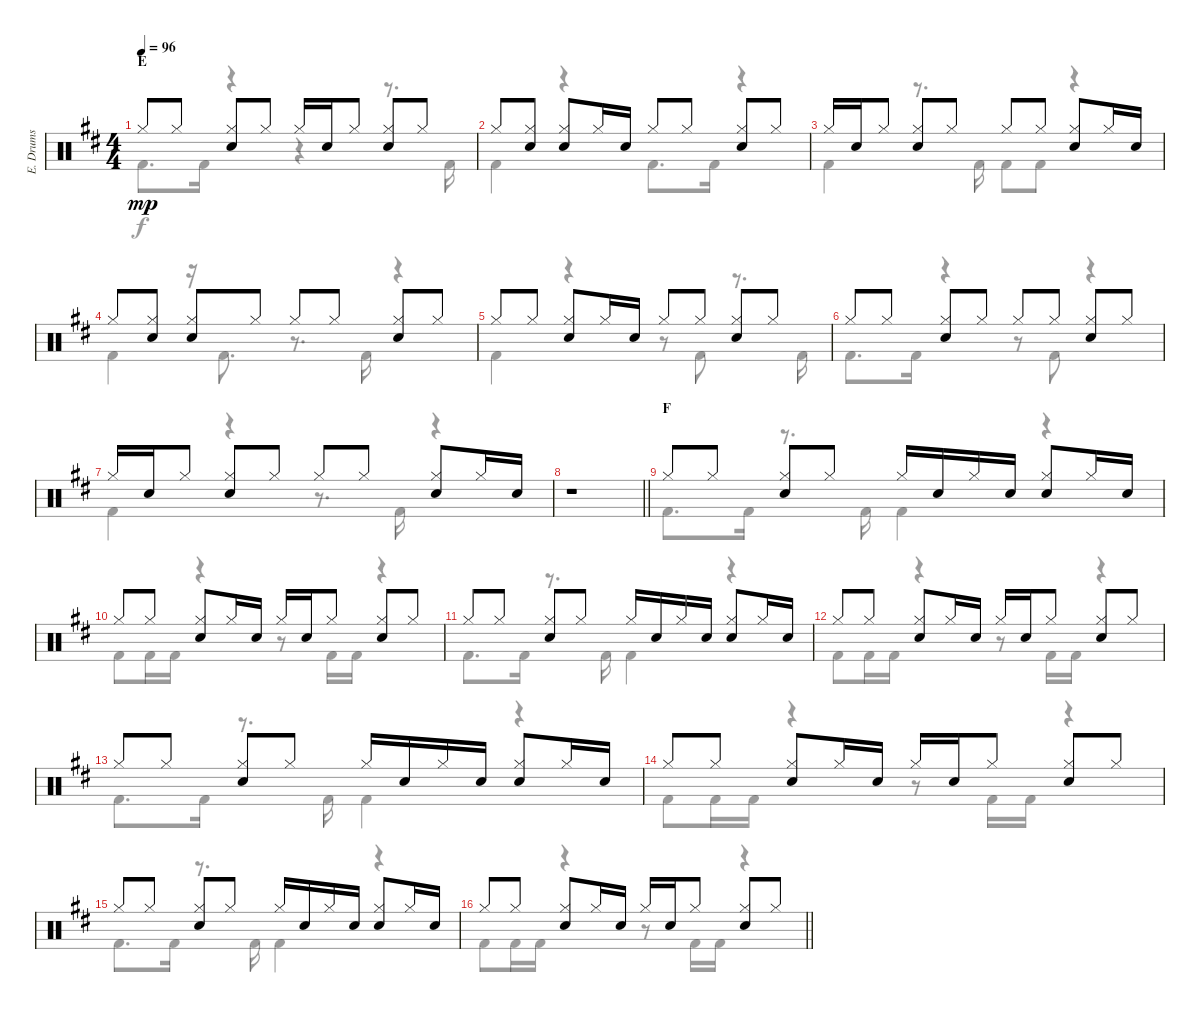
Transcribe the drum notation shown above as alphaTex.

\track ("E. Drums" "E. Drums") {instrument percussion}
\staff {score}
\articulation defaults
\voice
\ts (4 4)
\section ("" "E")
\tempo 96
\clef neutral
\ks d "Hi-Hat (closed)".8{dy mp} "Hi-Hat (closed)".8
("Hi-Hat (closed)" "Electric Snare (hit)").8 "Hi-Hat (closed)".8 "Hi-Hat (closed)".16 "Electric Snare (hit)".16 "Hi-Hat (closed)".8 ("Hi-Hat (closed)" "Electric Snare (hit)").8 "Hi-Hat (closed)".8 |
"Hi-Hat (closed)".8 ("Hi-Hat (closed)" "Electric Snare (hit)").8 ("Hi-Hat (closed)" "Electric Snare (hit)").8 "Hi-Hat (closed)".16 "Electric Snare (hit)".16 "Hi-Hat (closed)".8 "Hi-Hat (closed)".8 ("Hi-Hat (closed)" "Electric Snare (hit)").8 "Hi-Hat (closed)".8 |
"Hi-Hat (closed)".16 "Electric Snare (hit)".16 "Hi-Hat (closed)".8 ("Hi-Hat (closed)" "Electric Snare (hit)").8 "Hi-Hat (closed)".8 "Hi-Hat (closed)".8 "Hi-Hat (closed)".8 ("Hi-Hat (closed)" "Electric Snare (hit)").8 "Hi-Hat (closed)".16 "Electric Snare (hit)".16 |
"Hi-Hat (closed)".8 ("Hi-Hat (closed)" "Electric Snare (hit)").8 ("Hi-Hat (closed)" "Electric Snare (hit)").8 "Hi-Hat (closed)".8 "Hi-Hat (closed)".8 "Hi-Hat (closed)".8 ("Hi-Hat (closed)" "Electric Snare (hit)").8 "Hi-Hat (closed)".8 |
"Hi-Hat (closed)".8 "Hi-Hat (closed)".8 ("Hi-Hat (closed)" "Electric Snare (hit)").8 "Hi-Hat (closed)".16 "Electric Snare (hit)".16 "Hi-Hat (closed)".8 "Hi-Hat (closed)".8 ("Hi-Hat (closed)" "Electric Snare (hit)").8 "Hi-Hat (closed)".8 |
"Hi-Hat (closed)".8 "Hi-Hat (closed)".8 ("Hi-Hat (closed)" "Electric Snare (hit)").8 "Hi-Hat (closed)".8 "Hi-Hat (closed)".8 "Hi-Hat (closed)".8 ("Hi-Hat (closed)" "Electric Snare (hit)").8 "Hi-Hat (closed)".8 |
"Hi-Hat (closed)".16 "Electric Snare (hit)".16 "Hi-Hat (closed)".8 ("Hi-Hat (closed)" "Electric Snare (hit)").8 "Hi-Hat (closed)".8 "Hi-Hat (closed)".8 "Hi-Hat (closed)".8 ("Hi-Hat (closed)" "Electric Snare (hit)").8 "Hi-Hat (closed)".16 "Electric Snare (hit)".16 |
\barLineRight lightlight
r.1 |
\section ("" "F")
"Hi-Hat (closed)".8 "Hi-Hat (closed)".8 ("Hi-Hat (closed)" "Electric Snare (hit)").8 "Hi-Hat (closed)".8 "Hi-Hat (closed)".16 "Electric Snare (hit)".16 "Hi-Hat (closed)".16 "Electric Snare (hit)".16 ("Hi-Hat (closed)" "Electric Snare (hit)").8 "Hi-Hat (closed)".16 "Electric Snare (hit)".16 |
"Hi-Hat (closed)".8 "Hi-Hat (closed)".8 ("Hi-Hat (closed)" "Electric Snare (hit)").8 "Hi-Hat (closed)".16 "Electric Snare (hit)".16 "Hi-Hat (closed)".16 "Electric Snare (hit)".16 "Hi-Hat (closed)".8 ("Hi-Hat (closed)" "Electric Snare (hit)").8 "Hi-Hat (closed)".8 |
"Hi-Hat (closed)".8 "Hi-Hat (closed)".8 ("Hi-Hat (closed)" "Electric Snare (hit)").8 "Hi-Hat (closed)".8 "Hi-Hat (closed)".16 "Electric Snare (hit)".16 "Hi-Hat (closed)".16 "Electric Snare (hit)".16 ("Hi-Hat (closed)" "Electric Snare (hit)").8 "Hi-Hat (closed)".16 "Electric Snare (hit)".16 |
"Hi-Hat (closed)".8 "Hi-Hat (closed)".8 ("Hi-Hat (closed)" "Electric Snare (hit)").8 "Hi-Hat (closed)".16 "Electric Snare (hit)".16 "Hi-Hat (closed)".16 "Electric Snare (hit)".16 "Hi-Hat (closed)".8 ("Hi-Hat (closed)" "Electric Snare (hit)").8 "Hi-Hat (closed)".8 |
"Hi-Hat (closed)".8 "Hi-Hat (closed)".8 ("Hi-Hat (closed)" "Electric Snare (hit)").8 "Hi-Hat (closed)".8 "Hi-Hat (closed)".16 "Electric Snare (hit)".16 "Hi-Hat (closed)".16 "Electric Snare (hit)".16 ("Hi-Hat (closed)" "Electric Snare (hit)").8 "Hi-Hat (closed)".16 "Electric Snare (hit)".16 |
"Hi-Hat (closed)".8 "Hi-Hat (closed)".8 ("Hi-Hat (closed)" "Electric Snare (hit)").8 "Hi-Hat (closed)".16 "Electric Snare (hit)".16 "Hi-Hat (closed)".16 "Electric Snare (hit)".16 "Hi-Hat (closed)".8 ("Hi-Hat (closed)" "Electric Snare (hit)").8 "Hi-Hat (closed)".8 |
"Hi-Hat (closed)".8 "Hi-Hat (closed)".8 ("Hi-Hat (closed)" "Electric Snare (hit)").8 "Hi-Hat (closed)".8 "Hi-Hat (closed)".16 "Electric Snare (hit)".16 "Hi-Hat (closed)".16 "Electric Snare (hit)".16 ("Hi-Hat (closed)" "Electric Snare (hit)").8 "Hi-Hat (closed)".16 "Electric Snare (hit)".16 |
\barLineRight lightlight "Hi-Hat (closed)".8 "Hi-Hat (closed)".8
("Hi-Hat (closed)" "Electric Snare (hit)").8 "Hi-Hat (closed)".16 "Electric Snare (hit)".16 "Hi-Hat (closed)".16 "Electric Snare (hit)".16 "Hi-Hat (closed)".8 ("Hi-Hat (closed)" "Electric Snare (hit)").8 "Hi-Hat (closed)".8
\voice
\clef neutral
\ottava regular
\simile none
\ks d "Kick (hit) 2".8{d dy f} "Kick (hit) 2".16
r.4 r.4 r.8{d} "Kick (hit) 2".16 |
"Kick (hit) 2".4 r.4 "Kick (hit) 2".8{d} "Kick (hit) 2".16 r.4 |
"Kick (hit) 2".4 r.8{d} "Kick (hit) 2".16 "Kick (hit) 2".8 "Kick (hit) 2".8 r.4 |
"Kick (hit) 2".4 r.16 "Kick (hit) 2".8{d} r.8{d} "Kick (hit) 2".16 r.4 |
"Kick (hit) 2".4 r.4 r.8 "Kick (hit) 2".8 r.8{d} "Kick (hit) 2".16 |
"Kick (hit) 2".8{d} "Kick (hit) 2".16 r.4 r.8 "Kick (hit) 2".8 r.4 |
"Kick (hit) 2".4 r.4 r.8{d} "Kick (hit) 2".16 r.4 |
\barLineRight lightlight
r.1 |
"Kick (hit) 2".8{d} "Kick (hit) 2".16 r.8{d} "Kick (hit) 2".16 "Kick (hit) 2".4 r.4 |
"Kick (hit) 2".8 "Kick (hit) 2".16 "Kick (hit) 2".16 r.4 r.8 "Kick (hit) 2".16 "Kick (hit) 2".16 r.4 |
"Kick (hit) 2".8{d} "Kick (hit) 2".16 r.8{d} "Kick (hit) 2".16 "Kick (hit) 2".4 r.4 |
"Kick (hit) 2".8 "Kick (hit) 2".16 "Kick (hit) 2".16 r.4 r.8 "Kick (hit) 2".16 "Kick (hit) 2".16 r.4 |
"Kick (hit) 2".8{d} "Kick (hit) 2".16 r.8{d} "Kick (hit) 2".16 "Kick (hit) 2".4 r.4 |
"Kick (hit) 2".8 "Kick (hit) 2".16 "Kick (hit) 2".16 r.4 r.8 "Kick (hit) 2".16 "Kick (hit) 2".16 r.4 |
"Kick (hit) 2".8{d} "Kick (hit) 2".16 r.8{d} "Kick (hit) 2".16 "Kick (hit) 2".4 r.4 |
\barLineRight lightlight "Kick (hit) 2".8 "Kick (hit) 2".16 "Kick (hit) 2".16
r.4 r.8 "Kick (hit) 2".16 "Kick (hit) 2".16 r.4
